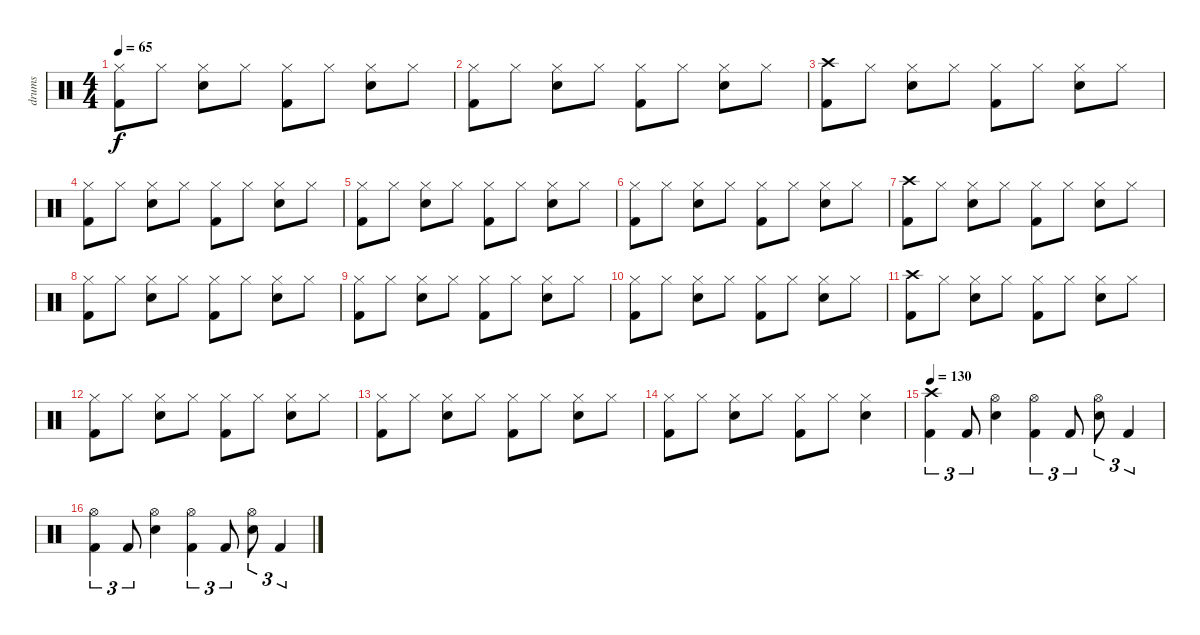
\track ("drums" "drums") {instrument percussion}
\staff {score}
\articulation defaults
\ts (4 4)
\tempo 65
\clef neutral
\ks c
("Hi-Hat (closed)" "Kick (hit) 2").8{dy f} "Hi-Hat (closed)".8 ("Hi-Hat (closed)" "Electric Snare (hit)").8 "Hi-Hat (closed)".8 ("Hi-Hat (closed)" "Kick (hit) 2").8 "Hi-Hat (closed)".8 ("Hi-Hat (closed)" "Electric Snare (hit)").8 "Hi-Hat (closed)".8 |
("Hi-Hat (closed)" "Kick (hit) 2").8 "Hi-Hat (closed)".8 ("Hi-Hat (closed)" "Electric Snare (hit)").8 "Hi-Hat (closed)".8 ("Hi-Hat (closed)" "Kick (hit) 2").8 "Hi-Hat (closed)".8 ("Hi-Hat (closed)" "Electric Snare (hit)").8 "Hi-Hat (closed)".8 |
("Crash high (hit)" "Kick (hit) 2").8 "Hi-Hat (closed)".8 ("Hi-Hat (closed)" "Electric Snare (hit)").8 "Hi-Hat (closed)".8 ("Hi-Hat (closed)" "Kick (hit) 2").8 "Hi-Hat (closed)".8 ("Hi-Hat (closed)" "Electric Snare (hit)").8 "Hi-Hat (closed)".8 |
("Hi-Hat (closed)" "Kick (hit) 2").8 "Hi-Hat (closed)".8 ("Hi-Hat (closed)" "Electric Snare (hit)").8 "Hi-Hat (closed)".8 ("Hi-Hat (closed)" "Kick (hit) 2").8 "Hi-Hat (closed)".8 ("Hi-Hat (closed)" "Electric Snare (hit)").8 "Hi-Hat (closed)".8 |
("Hi-Hat (closed)" "Kick (hit) 2").8 "Hi-Hat (closed)".8 ("Hi-Hat (closed)" "Electric Snare (hit)").8 "Hi-Hat (closed)".8 ("Hi-Hat (closed)" "Kick (hit) 2").8 "Hi-Hat (closed)".8 ("Hi-Hat (closed)" "Electric Snare (hit)").8 "Hi-Hat (closed)".8 |
("Hi-Hat (closed)" "Kick (hit) 2").8 "Hi-Hat (closed)".8 ("Hi-Hat (closed)" "Electric Snare (hit)").8 "Hi-Hat (closed)".8 ("Hi-Hat (closed)" "Kick (hit) 2").8 "Hi-Hat (closed)".8 ("Hi-Hat (closed)" "Electric Snare (hit)").8 "Hi-Hat (closed)".8 |
("Crash high (hit)" "Kick (hit) 2").8 "Hi-Hat (closed)".8 ("Hi-Hat (closed)" "Electric Snare (hit)").8 "Hi-Hat (closed)".8 ("Hi-Hat (closed)" "Kick (hit) 2").8 "Hi-Hat (closed)".8 ("Hi-Hat (closed)" "Electric Snare (hit)").8 "Hi-Hat (closed)".8 |
("Hi-Hat (closed)" "Kick (hit) 2").8 "Hi-Hat (closed)".8 ("Hi-Hat (closed)" "Electric Snare (hit)").8 "Hi-Hat (closed)".8 ("Hi-Hat (closed)" "Kick (hit) 2").8 "Hi-Hat (closed)".8 ("Hi-Hat (closed)" "Electric Snare (hit)").8 "Hi-Hat (closed)".8 |
("Hi-Hat (closed)" "Kick (hit) 2").8 "Hi-Hat (closed)".8 ("Hi-Hat (closed)" "Electric Snare (hit)").8 "Hi-Hat (closed)".8 ("Hi-Hat (closed)" "Kick (hit) 2").8 "Hi-Hat (closed)".8 ("Hi-Hat (closed)" "Electric Snare (hit)").8 "Hi-Hat (closed)".8 |
("Hi-Hat (closed)" "Kick (hit) 2").8 "Hi-Hat (closed)".8 ("Hi-Hat (closed)" "Electric Snare (hit)").8 "Hi-Hat (closed)".8 ("Hi-Hat (closed)" "Kick (hit) 2").8 "Hi-Hat (closed)".8 ("Hi-Hat (closed)" "Electric Snare (hit)").8 "Hi-Hat (closed)".8 |
("Crash high (hit)" "Kick (hit) 2").8 "Hi-Hat (closed)".8 ("Hi-Hat (closed)" "Electric Snare (hit)").8 "Hi-Hat (closed)".8 ("Hi-Hat (closed)" "Kick (hit) 2").8 "Hi-Hat (closed)".8 ("Hi-Hat (closed)" "Electric Snare (hit)").8 "Hi-Hat (closed)".8 |
("Hi-Hat (closed)" "Kick (hit) 2").8 "Hi-Hat (closed)".8 ("Hi-Hat (closed)" "Electric Snare (hit)").8 "Hi-Hat (closed)".8 ("Hi-Hat (closed)" "Kick (hit) 2").8 "Hi-Hat (closed)".8 ("Hi-Hat (closed)" "Electric Snare (hit)").8 "Hi-Hat (closed)".8 |
("Hi-Hat (closed)" "Kick (hit) 2").8 "Hi-Hat (closed)".8 ("Hi-Hat (closed)" "Electric Snare (hit)").8 "Hi-Hat (closed)".8 ("Hi-Hat (closed)" "Kick (hit) 2").8 "Hi-Hat (closed)".8 ("Hi-Hat (closed)" "Electric Snare (hit)").8 "Hi-Hat (closed)".8 |
("Hi-Hat (closed)" "Kick (hit) 2").8 "Hi-Hat (closed)".8 ("Hi-Hat (closed)" "Electric Snare (hit)").8 "Hi-Hat (closed)".8 ("Hi-Hat (closed)" "Kick (hit) 2").8 "Hi-Hat (closed)".8 ("Hi-Hat (closed)" "Electric Snare (hit)").4 |
\tempo 130
("Crash high (hit)" "Kick (hit) 2").4{tu (3 2)} "Kick (hit) 2".8{tu (3 2)} ("Hi-Hat (open)" "Electric Snare (hit)").4 ("Hi-Hat (open)" "Kick (hit) 2").4{tu (3 2)} "Kick (hit) 2".8{tu (3 2)} ("Hi-Hat (open)" "Electric Snare (hit)").8{tu (3 2)} "Kick (hit) 2".4{tu (3 2)} |
("Hi-Hat (open)" "Kick (hit) 2").4{tu (3 2)} "Kick (hit) 2".8{tu (3 2)} ("Hi-Hat (open)" "Electric Snare (hit)").4 ("Hi-Hat (open)" "Kick (hit) 2").4{tu (3 2)} "Kick (hit) 2".8{tu (3 2)} ("Hi-Hat (open)" "Electric Snare (hit)").8{tu (3 2)} "Kick (hit) 2".4{tu (3 2)}
